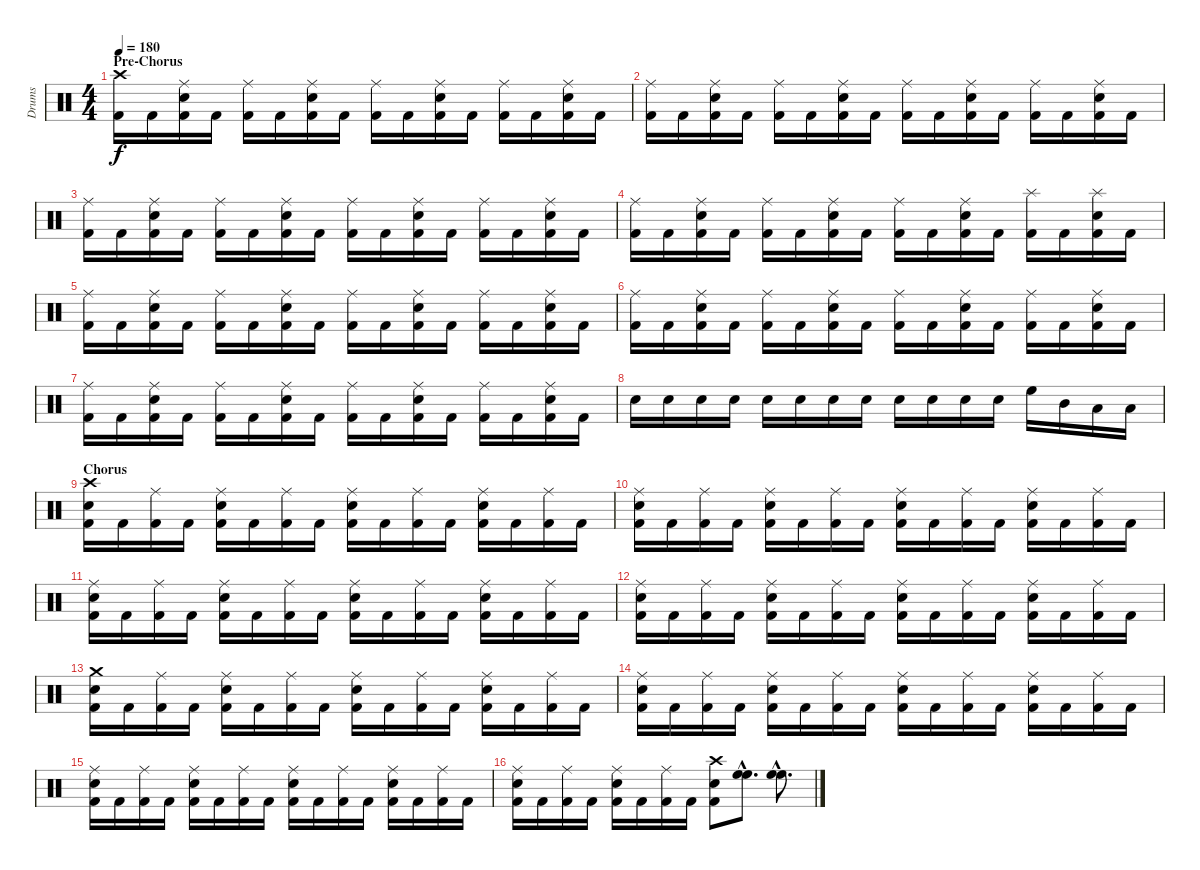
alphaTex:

\track ("Drums" "Drums") {instrument percussion}
\staff {score}
\articulation defaults
\ts (4 4)
\section ("" "Pre-Chorus")
\tempo 180
\clef neutral
\ks c
("Crash high (hit)" "Kick (hit) 2").16{dy f} "Kick (hit) 2".16 ("Ride (middle)" "Snare (hit) 2" "Kick (hit) 2").16 "Kick (hit) 2".16 ("Ride (middle)" "Kick (hit) 2").16 "Kick (hit) 2".16 ("Ride (middle)" "Snare (hit) 2" "Kick (hit) 2").16 "Kick (hit) 2".16 ("Ride (middle)" "Kick (hit) 2").16 "Kick (hit) 2".16 ("Ride (middle)" "Snare (hit) 2" "Kick (hit) 2").16 "Kick (hit) 2".16 ("Ride (middle)" "Kick (hit) 2").16 "Kick (hit) 2".16 ("Ride (middle)" "Snare (hit) 2" "Kick (hit) 2").16 "Kick (hit) 2".16 |
("Ride (middle)" "Kick (hit) 2").16 "Kick (hit) 2".16 ("Ride (middle)" "Snare (hit) 2" "Kick (hit) 2").16 "Kick (hit) 2".16 ("Ride (middle)" "Kick (hit) 2").16 "Kick (hit) 2".16 ("Ride (middle)" "Snare (hit) 2" "Kick (hit) 2").16 "Kick (hit) 2".16 ("Ride (middle)" "Kick (hit) 2").16 "Kick (hit) 2".16 ("Ride (middle)" "Snare (hit) 2" "Kick (hit) 2").16 "Kick (hit) 2".16 ("Ride (middle)" "Kick (hit) 2").16 "Kick (hit) 2".16 ("Ride (middle)" "Snare (hit) 2" "Kick (hit) 2").16 "Kick (hit) 2".16 |
("Ride (middle)" "Kick (hit) 2").16 "Kick (hit) 2".16 ("Ride (middle)" "Snare (hit) 2" "Kick (hit) 2").16 "Kick (hit) 2".16 ("Ride (middle)" "Kick (hit) 2").16 "Kick (hit) 2".16 ("Ride (middle)" "Snare (hit) 2" "Kick (hit) 2").16 "Kick (hit) 2".16 ("Ride (middle)" "Kick (hit) 2").16 "Kick (hit) 2".16 ("Ride (middle)" "Snare (hit) 2" "Kick (hit) 2").16 "Kick (hit) 2".16 ("Ride (middle)" "Kick (hit) 2").16 "Kick (hit) 2".16 ("Ride (middle)" "Snare (hit) 2" "Kick (hit) 2").16 "Kick (hit) 2".16 |
("Ride (middle)" "Kick (hit) 2").16 "Kick (hit) 2".16 ("Ride (middle)" "Snare (hit) 2" "Kick (hit) 2").16 "Kick (hit) 2".16 ("Ride (middle)" "Kick (hit) 2").16 "Kick (hit) 2".16 ("Ride (middle)" "Snare (hit) 2" "Kick (hit) 2").16 "Kick (hit) 2".16 ("Ride (middle)" "Kick (hit) 2").16 "Kick (hit) 2".16 ("Ride (middle)" "Snare (hit) 2" "Kick (hit) 2").16 "Kick (hit) 2".16 ("Splash (hit)" "Kick (hit) 2").16 "Kick (hit) 2".16 ("Splash (hit)" "Snare (hit) 2" "Kick (hit) 2").16 "Kick (hit) 2".16 |
("Ride (middle)" "Kick (hit) 2").16 "Kick (hit) 2".16 ("Ride (middle)" "Snare (hit) 2" "Kick (hit) 2").16 "Kick (hit) 2".16 ("Ride (middle)" "Kick (hit) 2").16 "Kick (hit) 2".16 ("Ride (middle)" "Snare (hit) 2" "Kick (hit) 2").16 "Kick (hit) 2".16 ("Ride (middle)" "Kick (hit) 2").16 "Kick (hit) 2".16 ("Ride (middle)" "Snare (hit) 2" "Kick (hit) 2").16 "Kick (hit) 2".16 ("Ride (middle)" "Kick (hit) 2").16 "Kick (hit) 2".16 ("Ride (middle)" "Snare (hit) 2" "Kick (hit) 2").16 "Kick (hit) 2".16 |
("Ride (middle)" "Kick (hit) 2").16 "Kick (hit) 2".16 ("Ride (middle)" "Snare (hit) 2" "Kick (hit) 2").16 "Kick (hit) 2".16 ("Ride (middle)" "Kick (hit) 2").16 "Kick (hit) 2".16 ("Ride (middle)" "Snare (hit) 2" "Kick (hit) 2").16 "Kick (hit) 2".16 ("Ride (middle)" "Kick (hit) 2").16 "Kick (hit) 2".16 ("Ride (middle)" "Snare (hit) 2" "Kick (hit) 2").16 "Kick (hit) 2".16 ("Ride (middle)" "Kick (hit) 2").16 "Kick (hit) 2".16 ("Ride (middle)" "Snare (hit) 2" "Kick (hit) 2").16 "Kick (hit) 2".16 |
("Ride (middle)" "Kick (hit) 2").16 "Kick (hit) 2".16 ("Ride (middle)" "Snare (hit) 2" "Kick (hit) 2").16 "Kick (hit) 2".16 ("Ride (middle)" "Kick (hit) 2").16 "Kick (hit) 2".16 ("Ride (middle)" "Snare (hit) 2" "Kick (hit) 2").16 "Kick (hit) 2".16 ("Ride (middle)" "Kick (hit) 2").16 "Kick (hit) 2".16 ("Ride (middle)" "Snare (hit) 2" "Kick (hit) 2").16 "Kick (hit) 2".16 ("Ride (middle)" "Kick (hit) 2").16 "Kick (hit) 2".16 ("Ride (middle)" "Snare (hit) 2" "Kick (hit) 2").16 "Kick (hit) 2".16 |
"Snare (hit) 2".16 "Snare (hit) 2".16 "Snare (hit) 2".16 "Snare (hit) 2".16 "Snare (hit) 2".16 "Snare (hit) 2".16 "Snare (hit) 2".16 "Snare (hit) 2".16 "Snare (hit) 2".16 "Snare (hit) 2".16 "Snare (hit) 2".16 "Snare (hit) 2".16 "High Floor Tom (hit)".16 "Mid Tom (hit)".16 "Low Tom (hit)".16 "Low Floor Tom (hit)".16 |
\section ("" "Chorus")
("Crash high (hit)" "Snare (hit) 2" "Kick (hit) 2").16 "Kick (hit) 2".16 ("Ride (middle)" "Kick (hit) 2").16 "Kick (hit) 2".16 ("Ride (middle)" "Snare (hit) 2" "Kick (hit) 2").16 "Kick (hit) 2".16 ("Ride (middle)" "Kick (hit) 2").16 "Kick (hit) 2".16 ("Ride (middle)" "Snare (hit) 2" "Kick (hit) 2").16 "Kick (hit) 2".16 ("Ride (middle)" "Kick (hit) 2").16 "Kick (hit) 2".16 ("Ride (middle)" "Snare (hit) 2" "Kick (hit) 2").16 "Kick (hit) 2".16 ("Ride (middle)" "Kick (hit) 2").16 "Kick (hit) 2".16 |
("Ride (middle)" "Snare (hit) 2" "Kick (hit) 2").16 "Kick (hit) 2".16 ("Ride (middle)" "Kick (hit) 2").16 "Kick (hit) 2".16 ("Ride (middle)" "Snare (hit) 2" "Kick (hit) 2").16 "Kick (hit) 2".16 ("Ride (middle)" "Kick (hit) 2").16 "Kick (hit) 2".16 ("Ride (middle)" "Snare (hit) 2" "Kick (hit) 2").16 "Kick (hit) 2".16 ("Ride (middle)" "Kick (hit) 2").16 "Kick (hit) 2".16 ("Ride (middle)" "Snare (hit) 2" "Kick (hit) 2").16 "Kick (hit) 2".16 ("Ride (middle)" "Kick (hit) 2").16 "Kick (hit) 2".16 |
("Ride (middle)" "Snare (hit) 2" "Kick (hit) 2").16 "Kick (hit) 2".16 ("Ride (middle)" "Kick (hit) 2").16 "Kick (hit) 2".16 ("Ride (middle)" "Snare (hit) 2" "Kick (hit) 2").16 "Kick (hit) 2".16 ("Ride (middle)" "Kick (hit) 2").16 "Kick (hit) 2".16 ("Ride (middle)" "Snare (hit) 2" "Kick (hit) 2").16 "Kick (hit) 2".16 ("Ride (middle)" "Kick (hit) 2").16 "Kick (hit) 2".16 ("Ride (middle)" "Snare (hit) 2" "Kick (hit) 2").16 "Kick (hit) 2".16 ("Ride (middle)" "Kick (hit) 2").16 "Kick (hit) 2".16 |
("Ride (middle)" "Snare (hit) 2" "Kick (hit) 2").16 "Kick (hit) 2".16 ("Ride (middle)" "Kick (hit) 2").16 "Kick (hit) 2".16 ("Ride (middle)" "Snare (hit) 2" "Kick (hit) 2").16 "Kick (hit) 2".16 ("Ride (middle)" "Kick (hit) 2").16 "Kick (hit) 2".16 ("Ride (middle)" "Snare (hit) 2" "Kick (hit) 2").16 "Kick (hit) 2".16 ("Ride (middle)" "Kick (hit) 2").16 "Kick (hit) 2".16 ("Ride (middle)" "Snare (hit) 2" "Kick (hit) 2").16 "Kick (hit) 2".16 ("Ride (middle)" "Kick (hit) 2").16 "Kick (hit) 2".16 |
("Crash medium (hit)" "Snare (hit) 2" "Kick (hit) 2").16 "Kick (hit) 2".16 ("Ride (middle)" "Kick (hit) 2").16 "Kick (hit) 2".16 ("Ride (middle)" "Snare (hit) 2" "Kick (hit) 2").16 "Kick (hit) 2".16 ("Ride (middle)" "Kick (hit) 2").16 "Kick (hit) 2".16 ("Ride (middle)" "Snare (hit) 2" "Kick (hit) 2").16 "Kick (hit) 2".16 ("Ride (middle)" "Kick (hit) 2").16 "Kick (hit) 2".16 ("Ride (middle)" "Snare (hit) 2" "Kick (hit) 2").16 "Kick (hit) 2".16 ("Ride (middle)" "Kick (hit) 2").16 "Kick (hit) 2".16 |
("Ride (middle)" "Snare (hit) 2" "Kick (hit) 2").16 "Kick (hit) 2".16 ("Ride (middle)" "Kick (hit) 2").16 "Kick (hit) 2".16 ("Ride (middle)" "Snare (hit) 2" "Kick (hit) 2").16 "Kick (hit) 2".16 ("Ride (middle)" "Kick (hit) 2").16 "Kick (hit) 2".16 ("Ride (middle)" "Snare (hit) 2" "Kick (hit) 2").16 "Kick (hit) 2".16 ("Ride (middle)" "Kick (hit) 2").16 "Kick (hit) 2".16 ("Ride (middle)" "Snare (hit) 2" "Kick (hit) 2").16 "Kick (hit) 2".16 ("Ride (middle)" "Kick (hit) 2").16 "Kick (hit) 2".16 |
("Ride (middle)" "Snare (hit) 2" "Kick (hit) 2").16 "Kick (hit) 2".16 ("Ride (middle)" "Kick (hit) 2").16 "Kick (hit) 2".16 ("Ride (middle)" "Snare (hit) 2" "Kick (hit) 2").16 "Kick (hit) 2".16 ("Ride (middle)" "Kick (hit) 2").16 "Kick (hit) 2".16 ("Ride (middle)" "Snare (hit) 2" "Kick (hit) 2").16 "Kick (hit) 2".16 ("Ride (middle)" "Kick (hit) 2").16 "Kick (hit) 2".16 ("Ride (middle)" "Snare (hit) 2" "Kick (hit) 2").16 "Kick (hit) 2".16 ("Ride (middle)" "Kick (hit) 2").16 "Kick (hit) 2".16 |
("Ride (middle)" "Snare (hit) 2" "Kick (hit) 2").16 "Kick (hit) 2".16 ("Ride (middle)" "Kick (hit) 2").16 "Kick (hit) 2".16 ("Ride (middle)" "Snare (hit) 2" "Kick (hit) 2").16 "Kick (hit) 2".16 ("Ride (middle)" "Kick (hit) 2").16 "Kick (hit) 2".16 ("Crash high (hit)" "Snare (hit) 2" "Kick (hit) 2").8 ("High Floor Tom (hit)"{hac} "High Floor Tom (hit)"{hac}).8{d} ("High Floor Tom (hit)"{hac} "High Floor Tom (hit)"{hac}).8{d}
